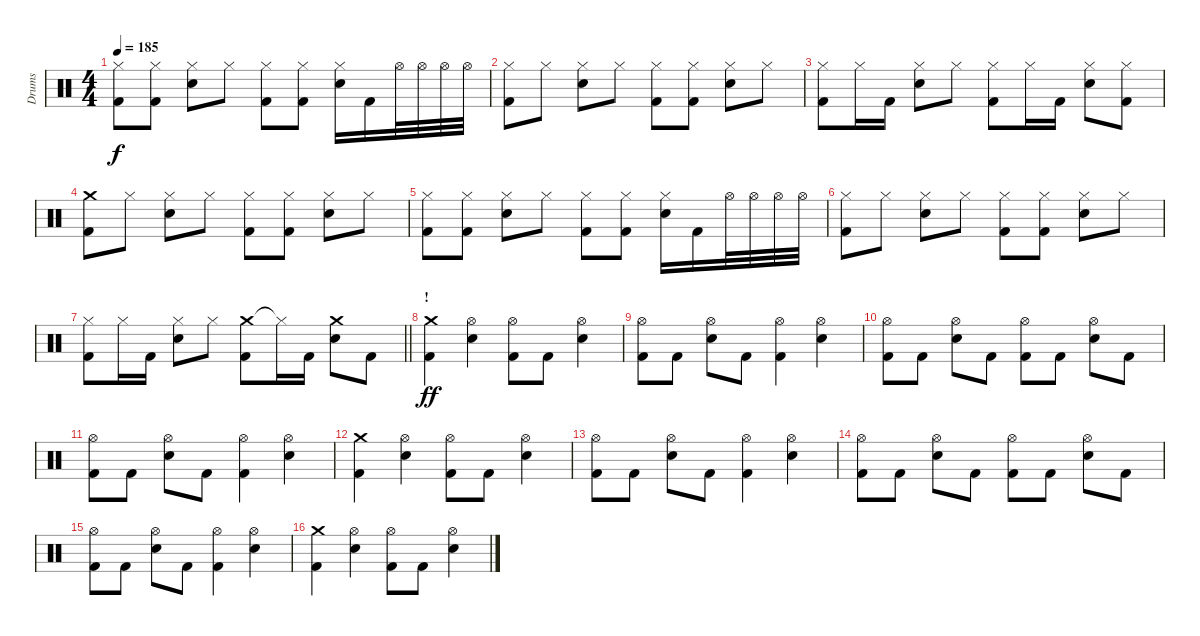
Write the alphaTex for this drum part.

\track ("Drums" "Drums") {instrument percussion}
\staff {score}
\articulation defaults
\ts (4 4)
\tempo 185
\clef neutral
\ks c
("Hi-Hat (closed)" "Kick (hit) 2").8{dy f} ("Hi-Hat (closed)" "Kick (hit) 2").8 ("Hi-Hat (closed)" "Electric Snare (hit)").8 "Hi-Hat (closed)".8 ("Hi-Hat (closed)" "Kick (hit) 2").8 ("Hi-Hat (closed)" "Kick (hit) 2").8 ("Hi-Hat (closed)" "Electric Snare (hit)").16 "Kick (hit) 2".16 "Hi-Hat (open)".32 "Hi-Hat (open)".32 "Hi-Hat (open)".32 "Hi-Hat (open)".32 |
("Hi-Hat (closed)" "Kick (hit) 2").8 "Hi-Hat (closed)".8 ("Hi-Hat (closed)" "Electric Snare (hit)").8 "Hi-Hat (closed)".8 ("Hi-Hat (closed)" "Kick (hit) 2").8 ("Hi-Hat (closed)" "Kick (hit) 2").8 ("Hi-Hat (closed)" "Electric Snare (hit)").8 "Hi-Hat (closed)".8 |
("Hi-Hat (closed)" "Kick (hit) 2").8 "Hi-Hat (closed)".16 "Kick (hit) 2".16 ("Hi-Hat (closed)" "Electric Snare (hit)").8 "Hi-Hat (closed)".8 ("Hi-Hat (closed)" "Kick (hit) 2").8 "Hi-Hat (closed)".16 "Kick (hit) 2".16 ("Hi-Hat (closed)" "Electric Snare (hit)").8 ("Hi-Hat (closed)" "Kick (hit) 2").8 |
("Crash medium (hit)" "Kick (hit) 2").8 "Hi-Hat (closed)".8 ("Hi-Hat (closed)" "Electric Snare (hit)").8 "Hi-Hat (closed)".8 ("Hi-Hat (closed)" "Kick (hit) 2").8 ("Hi-Hat (closed)" "Kick (hit) 2").8 ("Hi-Hat (closed)" "Electric Snare (hit)").8 "Hi-Hat (closed)".8 |
("Hi-Hat (closed)" "Kick (hit) 2").8 ("Hi-Hat (closed)" "Kick (hit) 2").8 ("Hi-Hat (closed)" "Electric Snare (hit)").8 "Hi-Hat (closed)".8 ("Hi-Hat (closed)" "Kick (hit) 2").8 ("Hi-Hat (closed)" "Kick (hit) 2").8 ("Hi-Hat (closed)" "Electric Snare (hit)").16 "Kick (hit) 2".16 "Hi-Hat (open)".32 "Hi-Hat (open)".32 "Hi-Hat (open)".32 "Hi-Hat (open)".32 |
("Hi-Hat (closed)" "Kick (hit) 2").8 "Hi-Hat (closed)".8 ("Hi-Hat (closed)" "Electric Snare (hit)").8 "Hi-Hat (closed)".8 ("Hi-Hat (closed)" "Kick (hit) 2").8 ("Hi-Hat (closed)" "Kick (hit) 2").8 ("Hi-Hat (closed)" "Electric Snare (hit)").8 "Hi-Hat (closed)".8 |
\barLineRight lightlight
("Hi-Hat (closed)" "Kick (hit) 2").8 "Hi-Hat (closed)".16 "Kick (hit) 2".16 ("Hi-Hat (closed)" "Electric Snare (hit)").8 "Hi-Hat (closed)".8 ("Crash medium (hit)" "Kick (hit) 2").8 "Hi-Hat (closed)"{t}.16 "Kick (hit) 2".16 ("Crash medium (hit)" "Electric Snare (hit)").8 "Kick (hit) 2".8 |
\section ("" "!")
("Crash medium (hit)" "Kick (hit) 2").4{dy ff} ("Hi-Hat (open)" "Electric Snare (hit)").4 ("Hi-Hat (open)" "Kick (hit) 2").8 "Kick (hit) 2".8 ("Hi-Hat (open)" "Electric Snare (hit)").4 |
("Hi-Hat (open)" "Kick (hit) 2").8 "Kick (hit) 2".8 ("Hi-Hat (open)" "Electric Snare (hit)").8 "Kick (hit) 2".8 ("Hi-Hat (open)" "Kick (hit) 2").4 ("Hi-Hat (open)" "Electric Snare (hit)").4 |
("Hi-Hat (open)" "Kick (hit) 2").8 "Kick (hit) 2".8 ("Hi-Hat (open)" "Electric Snare (hit)").8 "Kick (hit) 2".8 ("Hi-Hat (open)" "Kick (hit) 2").8 "Kick (hit) 2".8 ("Hi-Hat (open)" "Electric Snare (hit)").8 "Kick (hit) 2".8 |
("Hi-Hat (open)" "Kick (hit) 2").8 "Kick (hit) 2".8 ("Hi-Hat (open)" "Electric Snare (hit)").8 "Kick (hit) 2".8 ("Hi-Hat (open)" "Kick (hit) 2").4 ("Hi-Hat (open)" "Electric Snare (hit)").4 |
("Crash medium (hit)" "Kick (hit) 2").4 ("Hi-Hat (open)" "Electric Snare (hit)").4 ("Hi-Hat (open)" "Kick (hit) 2").8 "Kick (hit) 2".8 ("Hi-Hat (open)" "Electric Snare (hit)").4 |
("Hi-Hat (open)" "Kick (hit) 2").8 "Kick (hit) 2".8 ("Hi-Hat (open)" "Electric Snare (hit)").8 "Kick (hit) 2".8 ("Hi-Hat (open)" "Kick (hit) 2").4 ("Hi-Hat (open)" "Electric Snare (hit)").4 |
("Hi-Hat (open)" "Kick (hit) 2").8 "Kick (hit) 2".8 ("Hi-Hat (open)" "Electric Snare (hit)").8 "Kick (hit) 2".8 ("Hi-Hat (open)" "Kick (hit) 2").8 "Kick (hit) 2".8 ("Hi-Hat (open)" "Electric Snare (hit)").8 "Kick (hit) 2".8 |
("Hi-Hat (open)" "Kick (hit) 2").8 "Kick (hit) 2".8 ("Hi-Hat (open)" "Electric Snare (hit)").8 "Kick (hit) 2".8 ("Hi-Hat (open)" "Kick (hit) 2").4 ("Hi-Hat (open)" "Electric Snare (hit)").4 |
("Crash medium (hit)" "Kick (hit) 2").4 ("Hi-Hat (open)" "Electric Snare (hit)").4 ("Hi-Hat (open)" "Kick (hit) 2").8 "Kick (hit) 2".8 ("Hi-Hat (open)" "Electric Snare (hit)").4
